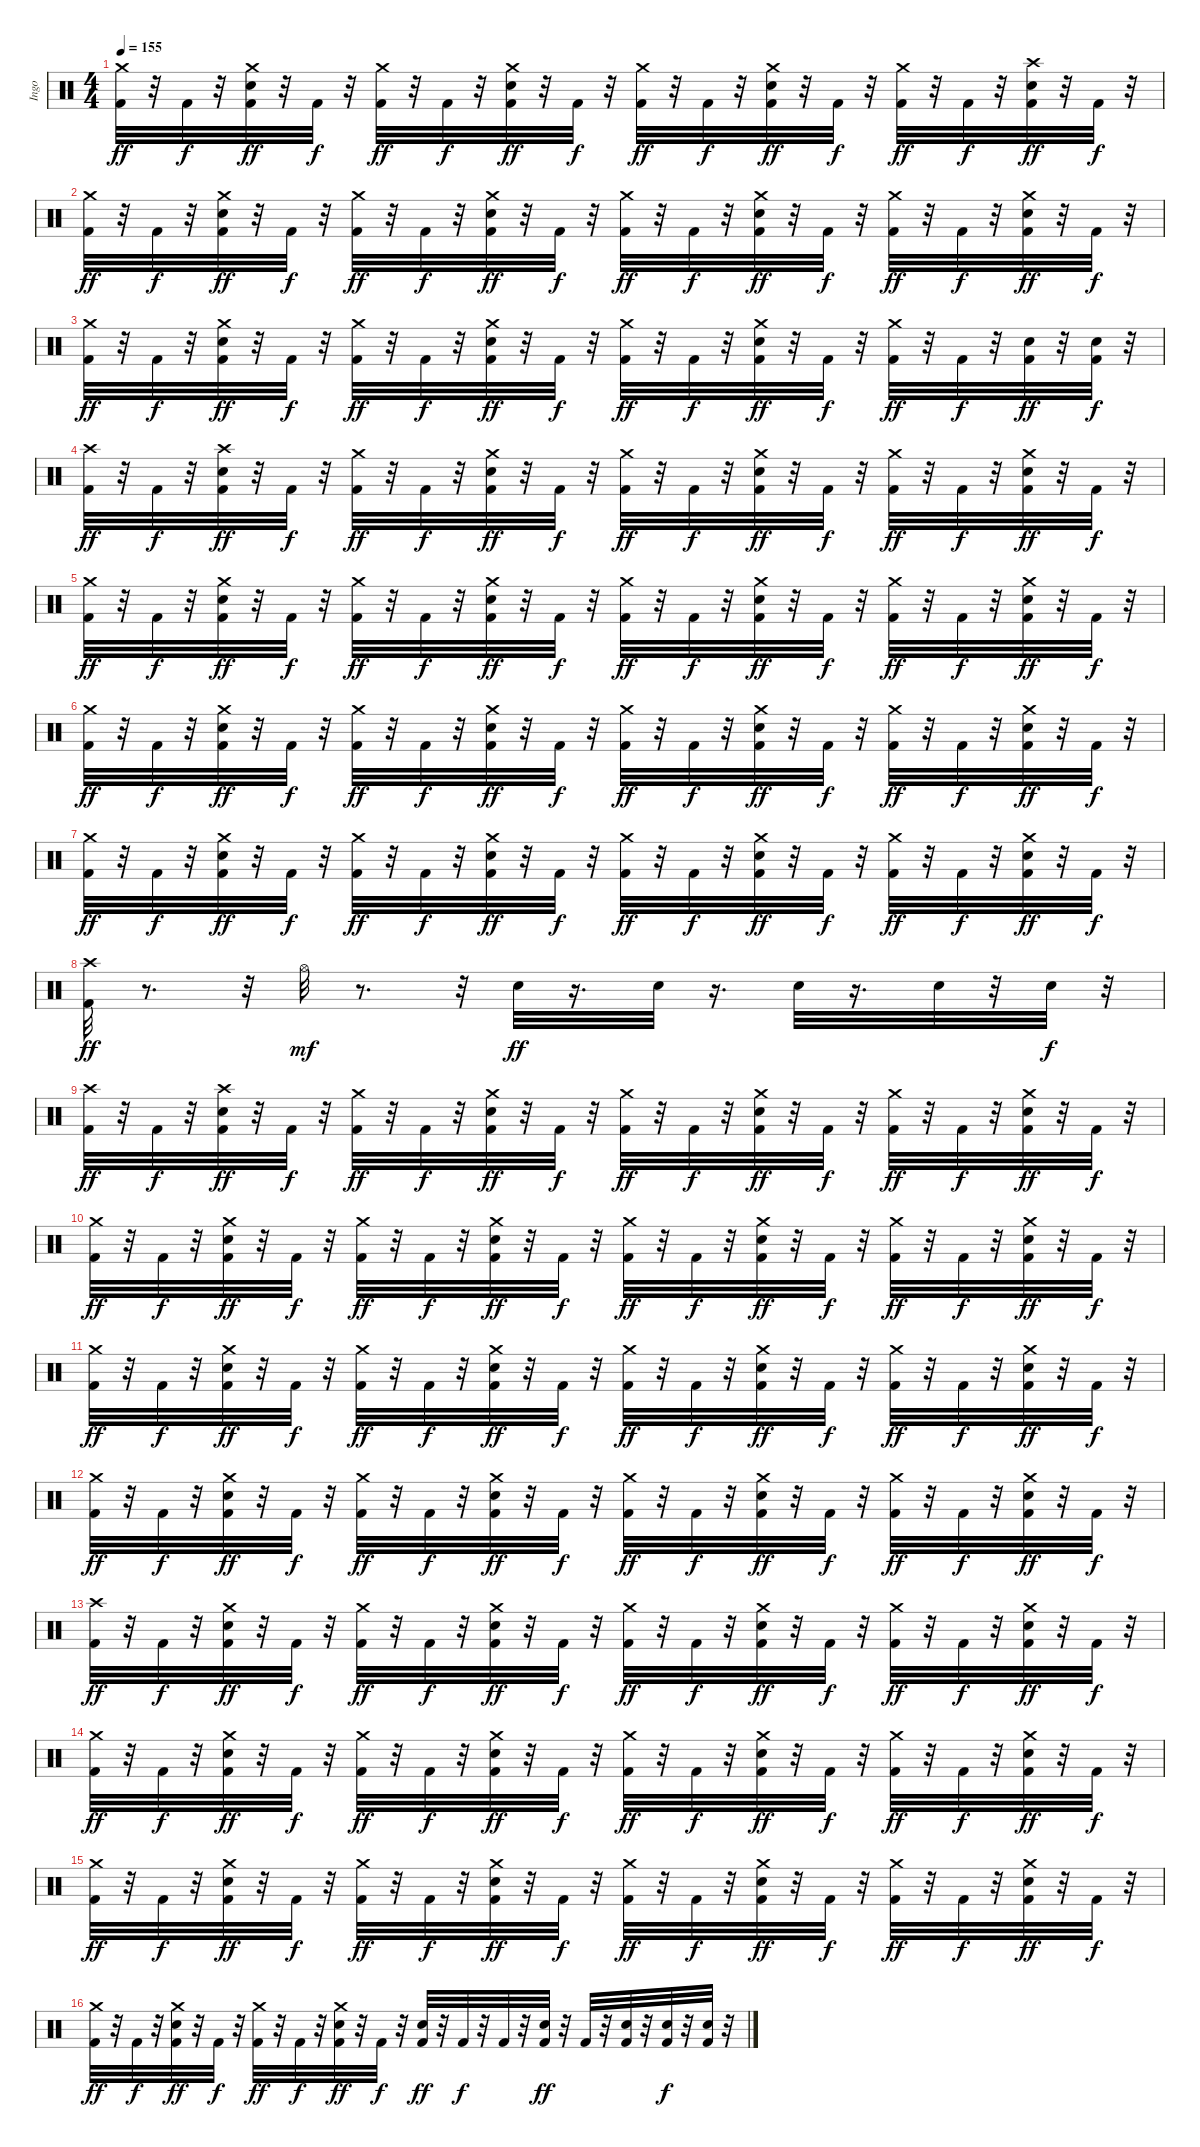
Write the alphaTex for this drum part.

\track ("Ingo" "Ingo") {instrument percussion}
\staff {score}
\articulation defaults
\ts (4 4)
\tempo 155
\clef neutral
\ks c
("Crash medium (hit)" "Kick (hit) 2").32{dy ff} r.32 "Kick (hit) 2".32{dy f} r.32 ("Kick (hit) 2" "Crash medium (hit)" "Snare (hit) 2").32{dy ff} r.32 "Kick (hit) 2".32{dy f} r.32 ("Crash medium (hit)" "Kick (hit) 2").32{dy ff} r.32 "Kick (hit) 2".32{dy f} r.32 ("Kick (hit) 2" "Crash medium (hit)" "Snare (hit) 2").32{dy ff} r.32 "Kick (hit) 2".32{dy f} r.32 ("Crash medium (hit)" "Kick (hit) 2").32{dy ff} r.32 "Kick (hit) 2".32{dy f} r.32 ("Kick (hit) 2" "Crash medium (hit)" "Snare (hit) 2").32{dy ff} r.32 "Kick (hit) 2".32{dy f} r.32 ("Crash medium (hit)" "Kick (hit) 2").32{dy ff} r.32 "Kick (hit) 2".32{dy f} r.32 ("Snare (hit) 2" "Crash high (hit)" "Kick (hit) 2").32{dy ff} r.32 "Kick (hit) 2".32{dy f} r.32 |
("Crash medium (hit)" "Kick (hit) 2").32{dy ff} r.32 "Kick (hit) 2".32{dy f} r.32 ("Kick (hit) 2" "Crash medium (hit)" "Snare (hit) 2").32{dy ff} r.32 "Kick (hit) 2".32{dy f} r.32 ("Crash medium (hit)" "Kick (hit) 2").32{dy ff} r.32 "Kick (hit) 2".32{dy f} r.32 ("Kick (hit) 2" "Crash medium (hit)" "Snare (hit) 2").32{dy ff} r.32 "Kick (hit) 2".32{dy f} r.32 ("Crash medium (hit)" "Kick (hit) 2").32{dy ff} r.32 "Kick (hit) 2".32{dy f} r.32 ("Kick (hit) 2" "Crash medium (hit)" "Snare (hit) 2").32{dy ff} r.32 "Kick (hit) 2".32{dy f} r.32 ("Crash medium (hit)" "Kick (hit) 2").32{dy ff} r.32 "Kick (hit) 2".32{dy f} r.32 ("Kick (hit) 2" "Crash medium (hit)" "Snare (hit) 2").32{dy ff} r.32 "Kick (hit) 2".32{dy f} r.32 |
("Crash medium (hit)" "Kick (hit) 2").32{dy ff} r.32 "Kick (hit) 2".32{dy f} r.32 ("Kick (hit) 2" "Crash medium (hit)" "Snare (hit) 2").32{dy ff} r.32 "Kick (hit) 2".32{dy f} r.32 ("Crash medium (hit)" "Kick (hit) 2").32{dy ff} r.32 "Kick (hit) 2".32{dy f} r.32 ("Kick (hit) 2" "Crash medium (hit)" "Snare (hit) 2").32{dy ff} r.32 "Kick (hit) 2".32{dy f} r.32 ("Crash medium (hit)" "Kick (hit) 2").32{dy ff} r.32 "Kick (hit) 2".32{dy f} r.32 ("Kick (hit) 2" "Crash medium (hit)" "Snare (hit) 2").32{dy ff} r.32 "Kick (hit) 2".32{dy f} r.32 ("Crash medium (hit)" "Kick (hit) 2").32{dy ff} r.32 "Kick (hit) 2".32{dy f} r.32 ("Snare (hit) 2" "Kick (hit) 2").32{dy ff} r.32 ("Snare (hit) 2" "Kick (hit) 2").32{dy f} r.32 |
("Crash high (hit)" "Kick (hit) 2").32{dy ff} r.32 "Kick (hit) 2".32{dy f} r.32 ("Snare (hit) 2" "Crash high (hit)" "Kick (hit) 2").32{dy ff} r.32 "Kick (hit) 2".32{dy f} r.32 ("Crash medium (hit)" "Kick (hit) 2").32{dy ff} r.32 "Kick (hit) 2".32{dy f} r.32 ("Kick (hit) 2" "Crash medium (hit)" "Snare (hit) 2").32{dy ff} r.32 "Kick (hit) 2".32{dy f} r.32 ("Crash medium (hit)" "Kick (hit) 2").32{dy ff} r.32 "Kick (hit) 2".32{dy f} r.32 ("Kick (hit) 2" "Crash medium (hit)" "Snare (hit) 2").32{dy ff} r.32 "Kick (hit) 2".32{dy f} r.32 ("Crash medium (hit)" "Kick (hit) 2").32{dy ff} r.32 "Kick (hit) 2".32{dy f} r.32 ("Kick (hit) 2" "Crash medium (hit)" "Snare (hit) 2").32{dy ff} r.32 "Kick (hit) 2".32{dy f} r.32 |
("Crash medium (hit)" "Kick (hit) 2").32{dy ff} r.32 "Kick (hit) 2".32{dy f} r.32 ("Kick (hit) 2" "Crash medium (hit)" "Snare (hit) 2").32{dy ff} r.32 "Kick (hit) 2".32{dy f} r.32 ("Crash medium (hit)" "Kick (hit) 2").32{dy ff} r.32 "Kick (hit) 2".32{dy f} r.32 ("Kick (hit) 2" "Crash medium (hit)" "Snare (hit) 2").32{dy ff} r.32 "Kick (hit) 2".32{dy f} r.32 ("Crash medium (hit)" "Kick (hit) 2").32{dy ff} r.32 "Kick (hit) 2".32{dy f} r.32 ("Kick (hit) 2" "Crash medium (hit)" "Snare (hit) 2").32{dy ff} r.32 "Kick (hit) 2".32{dy f} r.32 ("Crash medium (hit)" "Kick (hit) 2").32{dy ff} r.32 "Kick (hit) 2".32{dy f} r.32 ("Kick (hit) 2" "Crash medium (hit)" "Snare (hit) 2").32{dy ff} r.32 "Kick (hit) 2".32{dy f} r.32 |
("Crash medium (hit)" "Kick (hit) 2").32{dy ff} r.32 "Kick (hit) 2".32{dy f} r.32 ("Kick (hit) 2" "Crash medium (hit)" "Snare (hit) 2").32{dy ff} r.32 "Kick (hit) 2".32{dy f} r.32 ("Crash medium (hit)" "Kick (hit) 2").32{dy ff} r.32 "Kick (hit) 2".32{dy f} r.32 ("Kick (hit) 2" "Crash medium (hit)" "Snare (hit) 2").32{dy ff} r.32 "Kick (hit) 2".32{dy f} r.32 ("Crash medium (hit)" "Kick (hit) 2").32{dy ff} r.32 "Kick (hit) 2".32{dy f} r.32 ("Kick (hit) 2" "Crash medium (hit)" "Snare (hit) 2").32{dy ff} r.32 "Kick (hit) 2".32{dy f} r.32 ("Crash medium (hit)" "Kick (hit) 2").32{dy ff} r.32 "Kick (hit) 2".32{dy f} r.32 ("Kick (hit) 2" "Crash medium (hit)" "Snare (hit) 2").32{dy ff} r.32 "Kick (hit) 2".32{dy f} r.32 |
("Crash medium (hit)" "Kick (hit) 2").32{dy ff} r.32 "Kick (hit) 2".32{dy f} r.32 ("Kick (hit) 2" "Crash medium (hit)" "Snare (hit) 2").32{dy ff} r.32 "Kick (hit) 2".32{dy f} r.32 ("Crash medium (hit)" "Kick (hit) 2").32{dy ff} r.32 "Kick (hit) 2".32{dy f} r.32 ("Kick (hit) 2" "Crash medium (hit)" "Snare (hit) 2").32{dy ff} r.32 "Kick (hit) 2".32{dy f} r.32 ("Crash medium (hit)" "Kick (hit) 2").32{dy ff} r.32 "Kick (hit) 2".32{dy f} r.32 ("Kick (hit) 2" "Crash medium (hit)" "Snare (hit) 2").32{dy ff} r.32 "Kick (hit) 2".32{dy f} r.32 ("Crash medium (hit)" "Kick (hit) 2").32{dy ff} r.32 "Kick (hit) 2".32{dy f} r.32 ("Kick (hit) 2" "Crash medium (hit)" "Snare (hit) 2").32{dy ff} r.32 "Kick (hit) 2".32{dy f} r.32 |
("Kick (hit) 2" "Crash high (hit)").32{dy ff} r.8{d} r.32 "Hi-Hat (open)".32{dy mf} r.8{d} r.32 "Snare (hit) 2".32{dy ff} r.16{d} "Snare (hit) 2".32 r.16{d} "Snare (hit) 2".32 r.16{d} "Snare (hit) 2".32 r.32 "Snare (hit) 2".32{dy f} r.32 |
("Crash high (hit)" "Kick (hit) 2").32{dy ff} r.32 "Kick (hit) 2".32{dy f} r.32 ("Kick (hit) 2" "Crash high (hit)" "Snare (hit) 2").32{dy ff} r.32 "Kick (hit) 2".32{dy f} r.32 ("Crash medium (hit)" "Kick (hit) 2").32{dy ff} r.32 "Kick (hit) 2".32{dy f} r.32 ("Kick (hit) 2" "Crash medium (hit)" "Snare (hit) 2").32{dy ff} r.32 "Kick (hit) 2".32{dy f} r.32 ("Crash medium (hit)" "Kick (hit) 2").32{dy ff} r.32 "Kick (hit) 2".32{dy f} r.32 ("Kick (hit) 2" "Crash medium (hit)" "Snare (hit) 2").32{dy ff} r.32 "Kick (hit) 2".32{dy f} r.32 ("Crash medium (hit)" "Kick (hit) 2").32{dy ff} r.32 "Kick (hit) 2".32{dy f} r.32 ("Kick (hit) 2" "Crash medium (hit)" "Snare (hit) 2").32{dy ff} r.32 "Kick (hit) 2".32{dy f} r.32 |
("Crash medium (hit)" "Kick (hit) 2").32{dy ff} r.32 "Kick (hit) 2".32{dy f} r.32 ("Kick (hit) 2" "Crash medium (hit)" "Snare (hit) 2").32{dy ff} r.32 "Kick (hit) 2".32{dy f} r.32 ("Crash medium (hit)" "Kick (hit) 2").32{dy ff} r.32 "Kick (hit) 2".32{dy f} r.32 ("Kick (hit) 2" "Crash medium (hit)" "Snare (hit) 2").32{dy ff} r.32 "Kick (hit) 2".32{dy f} r.32 ("Crash medium (hit)" "Kick (hit) 2").32{dy ff} r.32 "Kick (hit) 2".32{dy f} r.32 ("Kick (hit) 2" "Crash medium (hit)" "Snare (hit) 2").32{dy ff} r.32 "Kick (hit) 2".32{dy f} r.32 ("Crash medium (hit)" "Kick (hit) 2").32{dy ff} r.32 "Kick (hit) 2".32{dy f} r.32 ("Kick (hit) 2" "Crash medium (hit)" "Snare (hit) 2").32{dy ff} r.32 "Kick (hit) 2".32{dy f} r.32 |
("Crash medium (hit)" "Kick (hit) 2").32{dy ff} r.32 "Kick (hit) 2".32{dy f} r.32 ("Kick (hit) 2" "Crash medium (hit)" "Snare (hit) 2").32{dy ff} r.32 "Kick (hit) 2".32{dy f} r.32 ("Crash medium (hit)" "Kick (hit) 2").32{dy ff} r.32 "Kick (hit) 2".32{dy f} r.32 ("Kick (hit) 2" "Crash medium (hit)" "Snare (hit) 2").32{dy ff} r.32 "Kick (hit) 2".32{dy f} r.32 ("Crash medium (hit)" "Kick (hit) 2").32{dy ff} r.32 "Kick (hit) 2".32{dy f} r.32 ("Kick (hit) 2" "Crash medium (hit)" "Snare (hit) 2").32{dy ff} r.32 "Kick (hit) 2".32{dy f} r.32 ("Crash medium (hit)" "Kick (hit) 2").32{dy ff} r.32 "Kick (hit) 2".32{dy f} r.32 ("Kick (hit) 2" "Crash medium (hit)" "Snare (hit) 2").32{dy ff} r.32 "Kick (hit) 2".32{dy f} r.32 |
("Crash medium (hit)" "Kick (hit) 2").32{dy ff} r.32 "Kick (hit) 2".32{dy f} r.32 ("Kick (hit) 2" "Crash medium (hit)" "Snare (hit) 2").32{dy ff} r.32 "Kick (hit) 2".32{dy f} r.32 ("Crash medium (hit)" "Kick (hit) 2").32{dy ff} r.32 "Kick (hit) 2".32{dy f} r.32 ("Kick (hit) 2" "Crash medium (hit)" "Snare (hit) 2").32{dy ff} r.32 "Kick (hit) 2".32{dy f} r.32 ("Crash medium (hit)" "Kick (hit) 2").32{dy ff} r.32 "Kick (hit) 2".32{dy f} r.32 ("Kick (hit) 2" "Crash medium (hit)" "Snare (hit) 2").32{dy ff} r.32 "Kick (hit) 2".32{dy f} r.32 ("Crash medium (hit)" "Kick (hit) 2").32{dy ff} r.32 "Kick (hit) 2".32{dy f} r.32 ("Kick (hit) 2" "Crash medium (hit)" "Snare (hit) 2").32{dy ff} r.32 "Kick (hit) 2".32{dy f} r.32 |
("Crash high (hit)" "Kick (hit) 2").32{dy ff} r.32 "Kick (hit) 2".32{dy f} r.32 ("Kick (hit) 2" "Crash medium (hit)" "Snare (hit) 2").32{dy ff} r.32 "Kick (hit) 2".32{dy f} r.32 ("Crash medium (hit)" "Kick (hit) 2").32{dy ff} r.32 "Kick (hit) 2".32{dy f} r.32 ("Kick (hit) 2" "Crash medium (hit)" "Snare (hit) 2").32{dy ff} r.32 "Kick (hit) 2".32{dy f} r.32 ("Crash medium (hit)" "Kick (hit) 2").32{dy ff} r.32 "Kick (hit) 2".32{dy f} r.32 ("Kick (hit) 2" "Crash medium (hit)" "Snare (hit) 2").32{dy ff} r.32 "Kick (hit) 2".32{dy f} r.32 ("Crash medium (hit)" "Kick (hit) 2").32{dy ff} r.32 "Kick (hit) 2".32{dy f} r.32 ("Kick (hit) 2" "Crash medium (hit)" "Snare (hit) 2").32{dy ff} r.32 "Kick (hit) 2".32{dy f} r.32 |
("Crash medium (hit)" "Kick (hit) 2").32{dy ff} r.32 "Kick (hit) 2".32{dy f} r.32 ("Kick (hit) 2" "Crash medium (hit)" "Snare (hit) 2").32{dy ff} r.32 "Kick (hit) 2".32{dy f} r.32 ("Crash medium (hit)" "Kick (hit) 2").32{dy ff} r.32 "Kick (hit) 2".32{dy f} r.32 ("Kick (hit) 2" "Crash medium (hit)" "Snare (hit) 2").32{dy ff} r.32 "Kick (hit) 2".32{dy f} r.32 ("Crash medium (hit)" "Kick (hit) 2").32{dy ff} r.32 "Kick (hit) 2".32{dy f} r.32 ("Kick (hit) 2" "Crash medium (hit)" "Snare (hit) 2").32{dy ff} r.32 "Kick (hit) 2".32{dy f} r.32 ("Crash medium (hit)" "Kick (hit) 2").32{dy ff} r.32 "Kick (hit) 2".32{dy f} r.32 ("Kick (hit) 2" "Crash medium (hit)" "Snare (hit) 2").32{dy ff} r.32 "Kick (hit) 2".32{dy f} r.32 |
("Crash medium (hit)" "Kick (hit) 2").32{dy ff} r.32 "Kick (hit) 2".32{dy f} r.32 ("Kick (hit) 2" "Crash medium (hit)" "Snare (hit) 2").32{dy ff} r.32 "Kick (hit) 2".32{dy f} r.32 ("Crash medium (hit)" "Kick (hit) 2").32{dy ff} r.32 "Kick (hit) 2".32{dy f} r.32 ("Kick (hit) 2" "Crash medium (hit)" "Snare (hit) 2").32{dy ff} r.32 "Kick (hit) 2".32{dy f} r.32 ("Crash medium (hit)" "Kick (hit) 2").32{dy ff} r.32 "Kick (hit) 2".32{dy f} r.32 ("Kick (hit) 2" "Crash medium (hit)" "Snare (hit) 2").32{dy ff} r.32 "Kick (hit) 2".32{dy f} r.32 ("Crash medium (hit)" "Kick (hit) 2").32{dy ff} r.32 "Kick (hit) 2".32{dy f} r.32 ("Kick (hit) 2" "Crash medium (hit)" "Snare (hit) 2").32{dy ff} r.32 "Kick (hit) 2".32{dy f} r.32 |
("Crash medium (hit)" "Kick (hit) 2").32{dy ff} r.32 "Kick (hit) 2".32{dy f} r.32 ("Kick (hit) 2" "Crash medium (hit)" "Snare (hit) 2").32{dy ff} r.32 "Kick (hit) 2".32{dy f} r.32 ("Crash medium (hit)" "Kick (hit) 2").32{dy ff} r.32 "Kick (hit) 2".32{dy f} r.32 ("Kick (hit) 2" "Crash medium (hit)" "Snare (hit) 2").32{dy ff} r.32 "Kick (hit) 2".32{dy f} r.32 ("Snare (hit) 2" "Kick (hit) 2").32{dy ff} r.32 "Kick (hit) 2".32{dy f} r.32 "Kick (hit) 2".32 r.32 ("Snare (hit) 2" "Kick (hit) 2").32{dy ff} r.32 "Kick (hit) 2".32 r.32 ("Snare (hit) 2" "Kick (hit) 2").32 r.32 ("Snare (hit) 2" "Kick (hit) 2").32{dy f} r.32 ("Snare (hit) 2" "Kick (hit) 2").32 r.32
